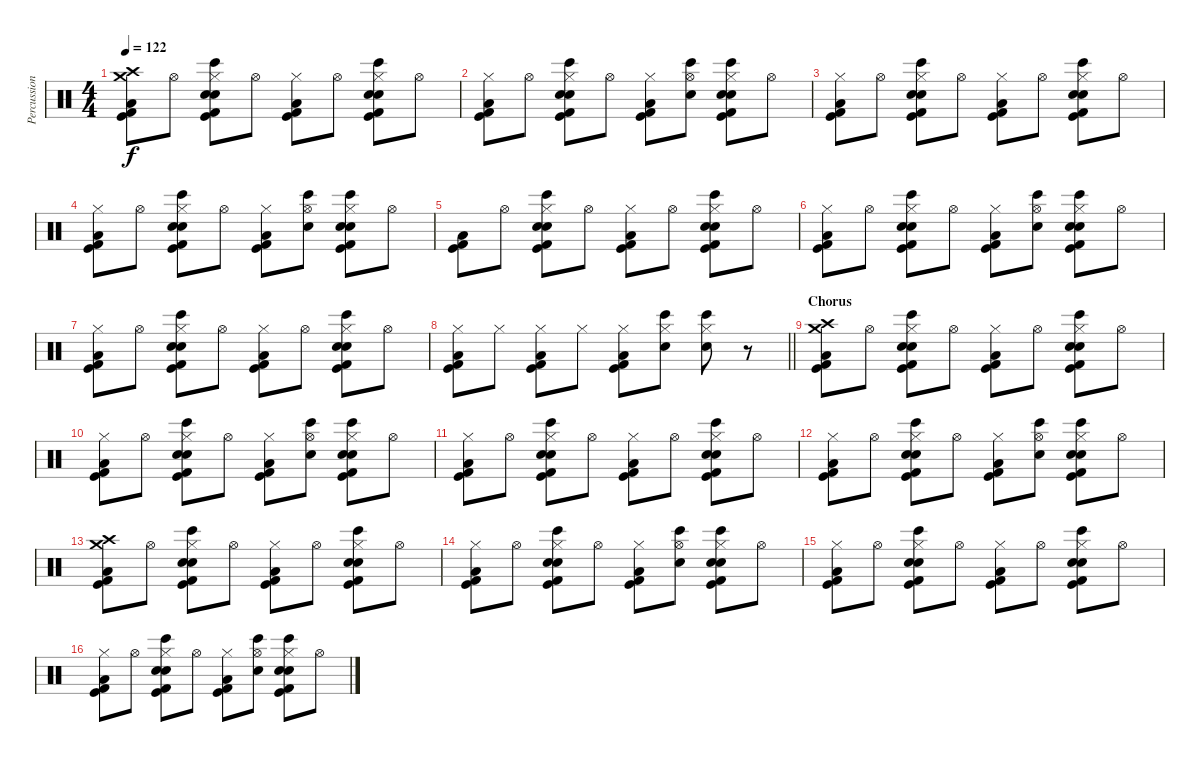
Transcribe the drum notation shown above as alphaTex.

\track ("Percussion" "Percussion") {instrument percussion}
\staff {score}
\articulation defaults
\ts (4 4)
\tempo 122
\clef neutral
\ks c
("Crash medium (hit)" "Crash high (hit)" "Low Floor Tom (hit)" "Kick (hit)" "Kick (hit) 2").8{dy f} "Hi-Hat (open)".8 ("Hand Clap (hit)" "Bongo High (hit)" "Hi-Hat (closed)" "Electric Snare (hit)" "Kick (hit)" "Kick (hit) 2").8 "Hi-Hat (open)".8 ("Hi-Hat (closed)" "Low Floor Tom (hit)" "Kick (hit)" "Kick (hit) 2").8 "Hi-Hat (open)".8 ("Hand Clap (hit)" "Bongo High (hit)" "Hi-Hat (closed)" "Electric Snare (hit)" "Kick (hit)" "Kick (hit) 2").8 "Hi-Hat (open)".8 |
("Hi-Hat (closed)" "Low Floor Tom (hit)" "Kick (hit)" "Kick (hit) 2").8 "Hi-Hat (open)".8 ("Hand Clap (hit)" "Bongo High (hit)" "Hi-Hat (closed)" "Electric Snare (hit)" "Kick (hit)" "Kick (hit) 2").8 "Hi-Hat (open)".8 ("Hi-Hat (closed)" "Low Floor Tom (hit)" "Kick (hit)" "Kick (hit) 2").8 ("Hand Clap (hit)" "Bongo High (hit)" "Hi-Hat (open)").8 ("Hand Clap (hit)" "Bongo High (hit)" "Hi-Hat (closed)" "Electric Snare (hit)" "Kick (hit)" "Kick (hit) 2").8 "Hi-Hat (open)".8 |
("Hi-Hat (closed)" "Low Floor Tom (hit)" "Kick (hit)" "Kick (hit) 2").8 "Hi-Hat (open)".8 ("Hand Clap (hit)" "Bongo High (hit)" "Hi-Hat (closed)" "Electric Snare (hit)" "Kick (hit)" "Kick (hit) 2").8 "Hi-Hat (open)".8 ("Hi-Hat (closed)" "Low Floor Tom (hit)" "Kick (hit)" "Kick (hit) 2").8 "Hi-Hat (open)".8 ("Hand Clap (hit)" "Bongo High (hit)" "Hi-Hat (closed)" "Electric Snare (hit)" "Kick (hit)" "Kick (hit) 2").8 "Hi-Hat (open)".8 |
("Hi-Hat (closed)" "Low Floor Tom (hit)" "Kick (hit)" "Kick (hit) 2").8 "Hi-Hat (open)".8 ("Hand Clap (hit)" "Bongo High (hit)" "Hi-Hat (closed)" "Electric Snare (hit)" "Kick (hit)" "Kick (hit) 2").8 "Hi-Hat (open)".8 ("Hi-Hat (closed)" "Low Floor Tom (hit)" "Kick (hit)" "Kick (hit) 2").8 ("Hand Clap (hit)" "Bongo High (hit)" "Hi-Hat (open)").8 ("Hand Clap (hit)" "Bongo High (hit)" "Hi-Hat (closed)" "Electric Snare (hit)" "Kick (hit)" "Kick (hit) 2").8 "Hi-Hat (open)".8 |
("Low Floor Tom (hit)" "Kick (hit)" "Kick (hit) 2").8 "Hi-Hat (open)".8 ("Hand Clap (hit)" "Bongo High (hit)" "Hi-Hat (closed)" "Electric Snare (hit)" "Kick (hit)" "Kick (hit) 2").8 "Hi-Hat (open)".8 ("Hi-Hat (closed)" "Low Floor Tom (hit)" "Kick (hit)" "Kick (hit) 2").8 "Hi-Hat (open)".8 ("Hand Clap (hit)" "Bongo High (hit)" "Hi-Hat (closed)" "Electric Snare (hit)" "Kick (hit)" "Kick (hit) 2").8 "Hi-Hat (open)".8 |
("Hi-Hat (closed)" "Low Floor Tom (hit)" "Kick (hit)" "Kick (hit) 2").8 "Hi-Hat (open)".8 ("Hand Clap (hit)" "Bongo High (hit)" "Hi-Hat (closed)" "Electric Snare (hit)" "Kick (hit)" "Kick (hit) 2").8 "Hi-Hat (open)".8 ("Hi-Hat (closed)" "Low Floor Tom (hit)" "Kick (hit)" "Kick (hit) 2").8 ("Hand Clap (hit)" "Bongo High (hit)" "Hi-Hat (open)").8 ("Hand Clap (hit)" "Bongo High (hit)" "Hi-Hat (closed)" "Electric Snare (hit)" "Kick (hit)" "Kick (hit) 2").8 "Hi-Hat (open)".8 |
("Hi-Hat (closed)" "Low Floor Tom (hit)" "Kick (hit)" "Kick (hit) 2").8 "Hi-Hat (open)".8 ("Hand Clap (hit)" "Bongo High (hit)" "Hi-Hat (closed)" "Electric Snare (hit)" "Kick (hit)" "Kick (hit) 2").8 "Hi-Hat (open)".8 ("Hi-Hat (closed)" "Low Floor Tom (hit)" "Kick (hit)" "Kick (hit) 2").8 "Hi-Hat (open)".8 ("Hand Clap (hit)" "Bongo High (hit)" "Hi-Hat (closed)" "Electric Snare (hit)" "Kick (hit)" "Kick (hit) 2").8 "Hi-Hat (open)".8 |
\barLineRight lightlight
("Hi-Hat (closed)" "Low Floor Tom (hit)" "Kick (hit)" "Kick (hit) 2").8 "Hi-Hat (closed)".8 ("Hi-Hat (closed)" "Low Floor Tom (hit)" "Kick (hit)" "Kick (hit) 2").8 "Hi-Hat (closed)".8 ("Hi-Hat (closed)" "Low Floor Tom (hit)" "Kick (hit)" "Kick (hit) 2").8 ("Hand Clap (hit)" "Bongo High (hit)" "Hi-Hat (closed)").8 ("Hand Clap (hit)" "Bongo High (hit)" "Hi-Hat (closed)").8 r.8 |
\section ("" "Chorus")
("Crash medium (hit)" "Crash high (hit)" "Low Floor Tom (hit)" "Kick (hit)" "Kick (hit) 2").8 "Hi-Hat (open)".8 ("Hand Clap (hit)" "Bongo High (hit)" "Hi-Hat (closed)" "Electric Snare (hit)" "Kick (hit)" "Kick (hit) 2").8 "Hi-Hat (open)".8 ("Hi-Hat (closed)" "Low Floor Tom (hit)" "Kick (hit)" "Kick (hit) 2").8 "Hi-Hat (open)".8 ("Hand Clap (hit)" "Bongo High (hit)" "Hi-Hat (closed)" "Electric Snare (hit)" "Kick (hit)" "Kick (hit) 2").8 "Hi-Hat (open)".8 |
("Hi-Hat (closed)" "Low Floor Tom (hit)" "Kick (hit)" "Kick (hit) 2").8 "Hi-Hat (open)".8 ("Hand Clap (hit)" "Bongo High (hit)" "Hi-Hat (closed)" "Electric Snare (hit)" "Kick (hit)" "Kick (hit) 2").8 "Hi-Hat (open)".8 ("Hi-Hat (closed)" "Low Floor Tom (hit)" "Kick (hit)" "Kick (hit) 2").8 ("Hand Clap (hit)" "Bongo High (hit)" "Hi-Hat (open)").8 ("Hand Clap (hit)" "Bongo High (hit)" "Hi-Hat (closed)" "Electric Snare (hit)" "Kick (hit)" "Kick (hit) 2").8 "Hi-Hat (open)".8 |
("Hi-Hat (closed)" "Low Floor Tom (hit)" "Kick (hit)" "Kick (hit) 2").8 "Hi-Hat (open)".8 ("Hand Clap (hit)" "Bongo High (hit)" "Hi-Hat (closed)" "Electric Snare (hit)" "Kick (hit)" "Kick (hit) 2").8 "Hi-Hat (open)".8 ("Hi-Hat (closed)" "Low Floor Tom (hit)" "Kick (hit)" "Kick (hit) 2").8 "Hi-Hat (open)".8 ("Hand Clap (hit)" "Bongo High (hit)" "Hi-Hat (closed)" "Electric Snare (hit)" "Kick (hit)" "Kick (hit) 2").8 "Hi-Hat (open)".8 |
("Hi-Hat (closed)" "Low Floor Tom (hit)" "Kick (hit)" "Kick (hit) 2").8 "Hi-Hat (open)".8 ("Hand Clap (hit)" "Bongo High (hit)" "Hi-Hat (closed)" "Electric Snare (hit)" "Kick (hit)" "Kick (hit) 2").8 "Hi-Hat (open)".8 ("Hi-Hat (closed)" "Low Floor Tom (hit)" "Kick (hit)" "Kick (hit) 2").8 ("Hand Clap (hit)" "Bongo High (hit)" "Hi-Hat (open)").8 ("Hand Clap (hit)" "Bongo High (hit)" "Hi-Hat (closed)" "Electric Snare (hit)" "Kick (hit)" "Kick (hit) 2").8 "Hi-Hat (open)".8 |
("Crash medium (hit)" "Crash high (hit)" "Low Floor Tom (hit)" "Kick (hit)" "Kick (hit) 2").8 "Hi-Hat (open)".8 ("Hand Clap (hit)" "Bongo High (hit)" "Hi-Hat (closed)" "Electric Snare (hit)" "Kick (hit)" "Kick (hit) 2").8 "Hi-Hat (open)".8 ("Hi-Hat (closed)" "Low Floor Tom (hit)" "Kick (hit)" "Kick (hit) 2").8 "Hi-Hat (open)".8 ("Hand Clap (hit)" "Bongo High (hit)" "Hi-Hat (closed)" "Electric Snare (hit)" "Kick (hit)" "Kick (hit) 2").8 "Hi-Hat (open)".8 |
("Hi-Hat (closed)" "Low Floor Tom (hit)" "Kick (hit)" "Kick (hit) 2").8 "Hi-Hat (open)".8 ("Hand Clap (hit)" "Bongo High (hit)" "Hi-Hat (closed)" "Electric Snare (hit)" "Kick (hit)" "Kick (hit) 2").8 "Hi-Hat (open)".8 ("Hi-Hat (closed)" "Low Floor Tom (hit)" "Kick (hit)" "Kick (hit) 2").8 ("Hand Clap (hit)" "Bongo High (hit)" "Hi-Hat (open)").8 ("Hand Clap (hit)" "Bongo High (hit)" "Hi-Hat (closed)" "Electric Snare (hit)" "Kick (hit)" "Kick (hit) 2").8 "Hi-Hat (open)".8 |
("Hi-Hat (closed)" "Low Floor Tom (hit)" "Kick (hit)" "Kick (hit) 2").8 "Hi-Hat (open)".8 ("Hand Clap (hit)" "Bongo High (hit)" "Hi-Hat (closed)" "Electric Snare (hit)" "Kick (hit)" "Kick (hit) 2").8 "Hi-Hat (open)".8 ("Hi-Hat (closed)" "Low Floor Tom (hit)" "Kick (hit)" "Kick (hit) 2").8 "Hi-Hat (open)".8 ("Hand Clap (hit)" "Bongo High (hit)" "Hi-Hat (closed)" "Electric Snare (hit)" "Kick (hit)" "Kick (hit) 2").8 "Hi-Hat (open)".8 |
("Hi-Hat (closed)" "Low Floor Tom (hit)" "Kick (hit)" "Kick (hit) 2").8 "Hi-Hat (open)".8 ("Hand Clap (hit)" "Bongo High (hit)" "Hi-Hat (closed)" "Electric Snare (hit)" "Kick (hit)" "Kick (hit) 2").8 "Hi-Hat (open)".8 ("Hi-Hat (closed)" "Low Floor Tom (hit)" "Kick (hit)" "Kick (hit) 2").8 ("Hand Clap (hit)" "Bongo High (hit)" "Hi-Hat (open)").8 ("Hand Clap (hit)" "Bongo High (hit)" "Hi-Hat (closed)" "Electric Snare (hit)" "Kick (hit)" "Kick (hit) 2").8 "Hi-Hat (open)".8
